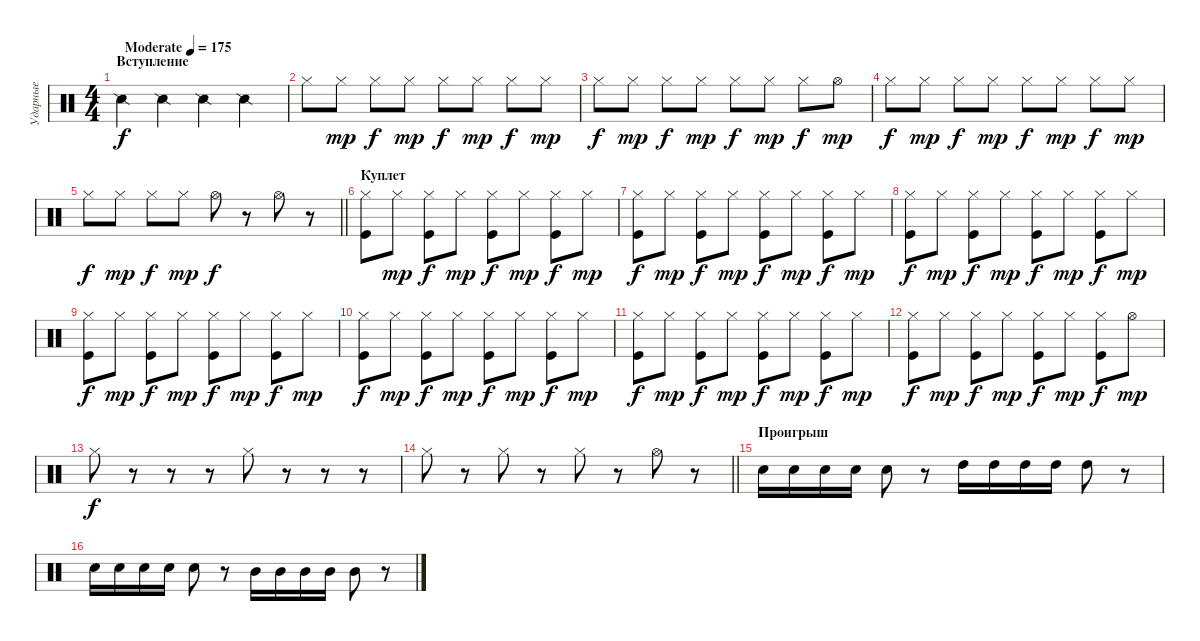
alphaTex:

\track ("Ударные" "Ударные") {instrument percussion}
\staff {score}
\articulation defaults
\ts (4 4)
\section ("" "Вступление")
\tempo (175 "Moderate")
\clef neutral
\ks c "Snare (side stick) 2".4{dy f} "Snare (side stick) 2".4 "Snare (side stick) 2".4 "Snare (side stick) 2".4
|
"Hi-Hat (closed)".8 "Hi-Hat (closed)".8{dy mp} "Hi-Hat (closed)".8{dy f} "Hi-Hat (closed)".8{dy mp} "Hi-Hat (closed)".8{dy f} "Hi-Hat (closed)".8{dy mp} "Hi-Hat (closed)".8{dy f} "Hi-Hat (closed)".8{dy mp} |
"Hi-Hat (closed)".8{dy f} "Hi-Hat (closed)".8{dy mp} "Hi-Hat (closed)".8{dy f} "Hi-Hat (closed)".8{dy mp} "Hi-Hat (closed)".8{dy f} "Hi-Hat (closed)".8{dy mp} "Hi-Hat (closed)".8{dy f} "Hi-Hat (open)".8{dy mp} |
"Hi-Hat (closed)".8{dy f} "Hi-Hat (closed)".8{dy mp} "Hi-Hat (closed)".8{dy f} "Hi-Hat (closed)".8{dy mp} "Hi-Hat (closed)".8{dy f} "Hi-Hat (closed)".8{dy mp} "Hi-Hat (closed)".8{dy f} "Hi-Hat (closed)".8{dy mp} |
\barLineRight lightlight "Hi-Hat (closed)".8{dy f} "Hi-Hat (closed)".8{dy mp} "Hi-Hat (closed)".8{dy f} "Hi-Hat (closed)".8{dy mp} "Hi-Hat (open)".8{dy f}
r.8 "Hi-Hat (open)".8 r.8 |
\section ("" "Куплет")
("Hi-Hat (closed)" "Kick (hit)").8 "Hi-Hat (closed)".8{dy mp} ("Hi-Hat (closed)" "Kick (hit)").8{dy f} "Hi-Hat (closed)".8{dy mp} ("Hi-Hat (closed)" "Kick (hit)").8{dy f} "Hi-Hat (closed)".8{dy mp} ("Hi-Hat (closed)" "Kick (hit)").8{dy f} "Hi-Hat (closed)".8{dy mp} |
("Hi-Hat (closed)" "Kick (hit)").8{dy f} "Hi-Hat (closed)".8{dy mp} ("Hi-Hat (closed)" "Kick (hit)").8{dy f} "Hi-Hat (closed)".8{dy mp} ("Hi-Hat (closed)" "Kick (hit)").8{dy f} "Hi-Hat (closed)".8{dy mp} ("Hi-Hat (closed)" "Kick (hit)").8{dy f} "Hi-Hat (closed)".8{dy mp} |
("Hi-Hat (closed)" "Kick (hit)").8{dy f} "Hi-Hat (closed)".8{dy mp} ("Hi-Hat (closed)" "Kick (hit)").8{dy f} "Hi-Hat (closed)".8{dy mp} ("Hi-Hat (closed)" "Kick (hit)").8{dy f} "Hi-Hat (closed)".8{dy mp} ("Hi-Hat (closed)" "Kick (hit)").8{dy f} "Hi-Hat (closed)".8{dy mp} |
("Hi-Hat (closed)" "Kick (hit)").8{dy f} "Hi-Hat (closed)".8{dy mp} ("Hi-Hat (closed)" "Kick (hit)").8{dy f} "Hi-Hat (closed)".8{dy mp} ("Hi-Hat (closed)" "Kick (hit)").8{dy f} "Hi-Hat (closed)".8{dy mp} ("Hi-Hat (closed)" "Kick (hit)").8{dy f} "Hi-Hat (closed)".8{dy mp} |
("Hi-Hat (closed)" "Kick (hit)").8{dy f} "Hi-Hat (closed)".8{dy mp} ("Hi-Hat (closed)" "Kick (hit)").8{dy f} "Hi-Hat (closed)".8{dy mp} ("Hi-Hat (closed)" "Kick (hit)").8{dy f} "Hi-Hat (closed)".8{dy mp} ("Hi-Hat (closed)" "Kick (hit)").8{dy f} "Hi-Hat (closed)".8{dy mp} |
("Hi-Hat (closed)" "Kick (hit)").8{dy f} "Hi-Hat (closed)".8{dy mp} ("Hi-Hat (closed)" "Kick (hit)").8{dy f} "Hi-Hat (closed)".8{dy mp} ("Hi-Hat (closed)" "Kick (hit)").8{dy f} "Hi-Hat (closed)".8{dy mp} ("Hi-Hat (closed)" "Kick (hit)").8{dy f} "Hi-Hat (closed)".8{dy mp} |
("Hi-Hat (closed)" "Kick (hit)").8{dy f} "Hi-Hat (closed)".8{dy mp} ("Hi-Hat (closed)" "Kick (hit)").8{dy f} "Hi-Hat (closed)".8{dy mp} ("Hi-Hat (closed)" "Kick (hit)").8{dy f} "Hi-Hat (closed)".8{dy mp} ("Hi-Hat (closed)" "Kick (hit)").8{dy f} "Hi-Hat (open)".8{dy mp} |
"Hi-Hat (closed)".8{dy f} r.8 r.8 r.8 "Hi-Hat (closed)".8 r.8 r.8 r.8 |
\barLineRight lightlight "Hi-Hat (closed)".8
r.8 "Hi-Hat (closed)".8 r.8 "Hi-Hat (closed)".8 r.8 "Hi-Hat (open)".8 r.8 |
\section ("" "Проигрыш")
"Electric Snare (hit)".16 "Electric Snare (hit)".16 "Electric Snare (hit)".16 "Electric Snare (hit)".16 "Electric Snare (hit)".8 r.8 "High Tom (hit)".16 "High Tom (hit)".16 "High Tom (hit)".16 "High Tom (hit)".16 "High Tom (hit)".8 r.8 |
"Electric Snare (hit)".16 "Electric Snare (hit)".16 "Electric Snare (hit)".16 "Electric Snare (hit)".16 "Electric Snare (hit)".8 r.8 "Mid Tom (hit)".16 "Mid Tom (hit)".16 "Mid Tom (hit)".16 "Mid Tom (hit)".16 "Mid Tom (hit)".8 r.8
